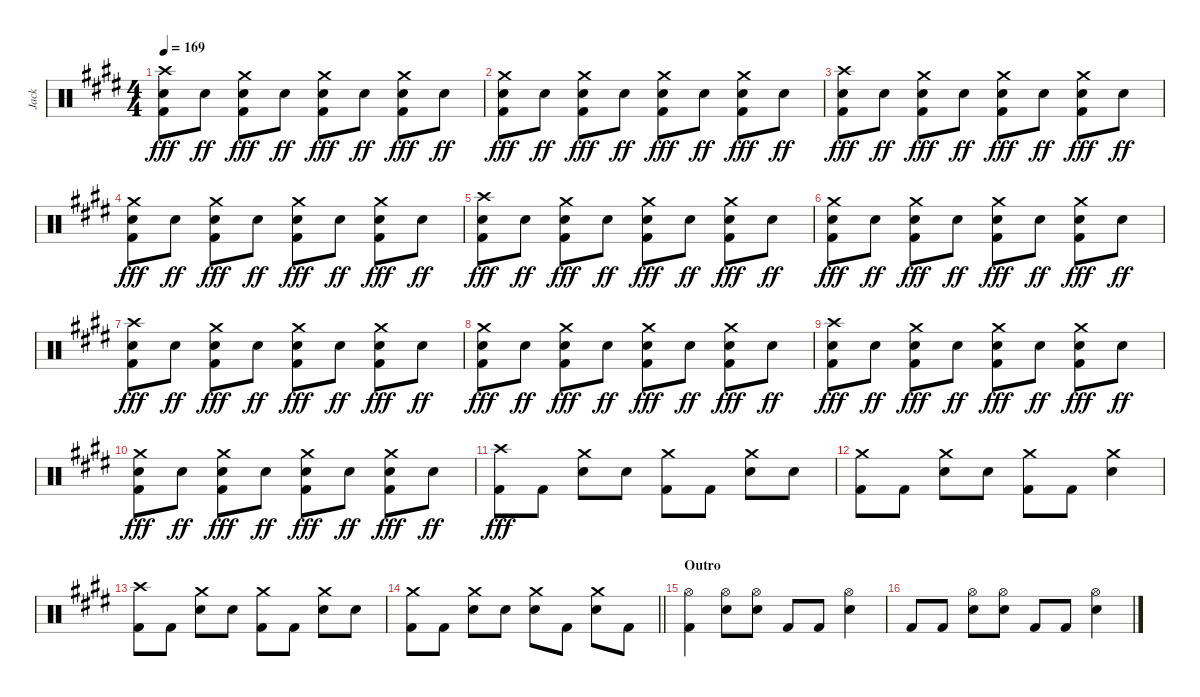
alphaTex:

\track ("Jack" "Jack") {instrument percussion}
\staff {score}
\articulation defaults
\ts (4 4)
\tempo 169
\clef neutral
\ks c#minor
("Crash high (hit)" "Electric Snare (hit)" "Kick (hit) 2").8{dy fff} "Electric Snare (hit)".8{dy ff} ("Crash medium (hit)" "Electric Snare (hit)" "Kick (hit) 2").8{dy fff} "Electric Snare (hit)".8{dy ff} ("Crash medium (hit)" "Electric Snare (hit)" "Kick (hit) 2").8{dy fff} "Electric Snare (hit)".8{dy ff} ("Crash medium (hit)" "Electric Snare (hit)" "Kick (hit) 2").8{dy fff} "Electric Snare (hit)".8{dy ff} |
("Crash medium (hit)" "Electric Snare (hit)" "Kick (hit) 2").8{dy fff} "Electric Snare (hit)".8{dy ff} ("Crash medium (hit)" "Electric Snare (hit)" "Kick (hit) 2").8{dy fff} "Electric Snare (hit)".8{dy ff} ("Crash medium (hit)" "Electric Snare (hit)" "Kick (hit) 2").8{dy fff} "Electric Snare (hit)".8{dy ff} ("Crash medium (hit)" "Electric Snare (hit)" "Kick (hit) 2").8{dy fff} "Electric Snare (hit)".8{dy ff} |
("Crash high (hit)" "Electric Snare (hit)" "Kick (hit) 2").8{dy fff} "Electric Snare (hit)".8{dy ff} ("Crash medium (hit)" "Electric Snare (hit)" "Kick (hit) 2").8{dy fff} "Electric Snare (hit)".8{dy ff} ("Crash medium (hit)" "Electric Snare (hit)" "Kick (hit) 2").8{dy fff} "Electric Snare (hit)".8{dy ff} ("Crash medium (hit)" "Electric Snare (hit)" "Kick (hit) 2").8{dy fff} "Electric Snare (hit)".8{dy ff} |
("Crash medium (hit)" "Electric Snare (hit)" "Kick (hit) 2").8{dy fff} "Electric Snare (hit)".8{dy ff} ("Crash medium (hit)" "Electric Snare (hit)" "Kick (hit) 2").8{dy fff} "Electric Snare (hit)".8{dy ff} ("Crash medium (hit)" "Electric Snare (hit)" "Kick (hit) 2").8{dy fff} "Electric Snare (hit)".8{dy ff} ("Crash medium (hit)" "Electric Snare (hit)" "Kick (hit) 2").8{dy fff} "Electric Snare (hit)".8{dy ff} |
("Crash high (hit)" "Electric Snare (hit)" "Kick (hit) 2").8{dy fff} "Electric Snare (hit)".8{dy ff} ("Crash medium (hit)" "Electric Snare (hit)" "Kick (hit) 2").8{dy fff} "Electric Snare (hit)".8{dy ff} ("Crash medium (hit)" "Electric Snare (hit)" "Kick (hit) 2").8{dy fff} "Electric Snare (hit)".8{dy ff} ("Crash medium (hit)" "Electric Snare (hit)" "Kick (hit) 2").8{dy fff} "Electric Snare (hit)".8{dy ff} |
("Crash medium (hit)" "Electric Snare (hit)" "Kick (hit) 2").8{dy fff} "Electric Snare (hit)".8{dy ff} ("Crash medium (hit)" "Electric Snare (hit)" "Kick (hit) 2").8{dy fff} "Electric Snare (hit)".8{dy ff} ("Crash medium (hit)" "Electric Snare (hit)" "Kick (hit) 2").8{dy fff} "Electric Snare (hit)".8{dy ff} ("Crash medium (hit)" "Electric Snare (hit)" "Kick (hit) 2").8{dy fff} "Electric Snare (hit)".8{dy ff} |
("Crash high (hit)" "Electric Snare (hit)" "Kick (hit) 2").8{dy fff} "Electric Snare (hit)".8{dy ff} ("Crash medium (hit)" "Electric Snare (hit)" "Kick (hit) 2").8{dy fff} "Electric Snare (hit)".8{dy ff} ("Crash medium (hit)" "Electric Snare (hit)" "Kick (hit) 2").8{dy fff} "Electric Snare (hit)".8{dy ff} ("Crash medium (hit)" "Electric Snare (hit)" "Kick (hit) 2").8{dy fff} "Electric Snare (hit)".8{dy ff} |
("Crash medium (hit)" "Electric Snare (hit)" "Kick (hit) 2").8{dy fff} "Electric Snare (hit)".8{dy ff} ("Crash medium (hit)" "Electric Snare (hit)" "Kick (hit) 2").8{dy fff} "Electric Snare (hit)".8{dy ff} ("Crash medium (hit)" "Electric Snare (hit)" "Kick (hit) 2").8{dy fff} "Electric Snare (hit)".8{dy ff} ("Crash medium (hit)" "Electric Snare (hit)" "Kick (hit) 2").8{dy fff} "Electric Snare (hit)".8{dy ff} |
("Crash high (hit)" "Electric Snare (hit)" "Kick (hit) 2").8{dy fff} "Electric Snare (hit)".8{dy ff} ("Crash medium (hit)" "Electric Snare (hit)" "Kick (hit) 2").8{dy fff} "Electric Snare (hit)".8{dy ff} ("Crash medium (hit)" "Electric Snare (hit)" "Kick (hit) 2").8{dy fff} "Electric Snare (hit)".8{dy ff} ("Crash medium (hit)" "Electric Snare (hit)" "Kick (hit) 2").8{dy fff} "Electric Snare (hit)".8{dy ff} |
("Crash medium (hit)" "Electric Snare (hit)" "Kick (hit) 2").8{dy fff} "Electric Snare (hit)".8{dy ff} ("Crash medium (hit)" "Electric Snare (hit)" "Kick (hit) 2").8{dy fff} "Electric Snare (hit)".8{dy ff} ("Crash medium (hit)" "Electric Snare (hit)" "Kick (hit) 2").8{dy fff} "Electric Snare (hit)".8{dy ff} ("Crash medium (hit)" "Electric Snare (hit)" "Kick (hit) 2").8{dy fff} "Electric Snare (hit)".8{dy ff} |
("Crash high (hit)" "Kick (hit) 2").8{dy fff} "Kick (hit) 2".8 ("Crash medium (hit)" "Electric Snare (hit)").8 "Electric Snare (hit)".8 ("Crash medium (hit)" "Kick (hit) 2").8 "Kick (hit) 2".8 ("Crash medium (hit)" "Electric Snare (hit)").8 "Electric Snare (hit)".8 |
("Crash medium (hit)" "Kick (hit) 2").8 "Kick (hit) 2".8 ("Crash medium (hit)" "Electric Snare (hit)").8 "Electric Snare (hit)".8 ("Crash medium (hit)" "Kick (hit) 2").8 "Kick (hit) 2".8 ("Crash medium (hit)" "Electric Snare (hit)").4 |
("Crash high (hit)" "Kick (hit) 2").8 "Kick (hit) 2".8 ("Crash medium (hit)" "Electric Snare (hit)").8 "Electric Snare (hit)".8 ("Crash medium (hit)" "Kick (hit) 2").8 "Kick (hit) 2".8 ("Crash medium (hit)" "Electric Snare (hit)").8 "Electric Snare (hit)".8 |
\barLineRight lightlight
("Crash medium (hit)" "Kick (hit) 2").8 "Kick (hit) 2".8 ("Crash medium (hit)" "Electric Snare (hit)").8 "Electric Snare (hit)".8 ("Crash medium (hit)" "Electric Snare (hit)").8 "Kick (hit) 2".8 ("Crash medium (hit)" "Electric Snare (hit)").8 "Kick (hit) 2".8 |
\section ("" "Outro")
("Hi-Hat (open)" "Kick (hit) 2").4 ("Hi-Hat (open)" "Electric Snare (hit)").8 ("Hi-Hat (open)" "Electric Snare (hit)").8 "Kick (hit) 2".8 "Kick (hit) 2".8 ("Hi-Hat (open)" "Electric Snare (hit)").4 |
"Kick (hit) 2".8 "Kick (hit) 2".8 ("Hi-Hat (open)" "Electric Snare (hit)").8 ("Hi-Hat (open)" "Electric Snare (hit)").8 "Kick (hit) 2".8 "Kick (hit) 2".8 ("Hi-Hat (open)" "Electric Snare (hit)").4
